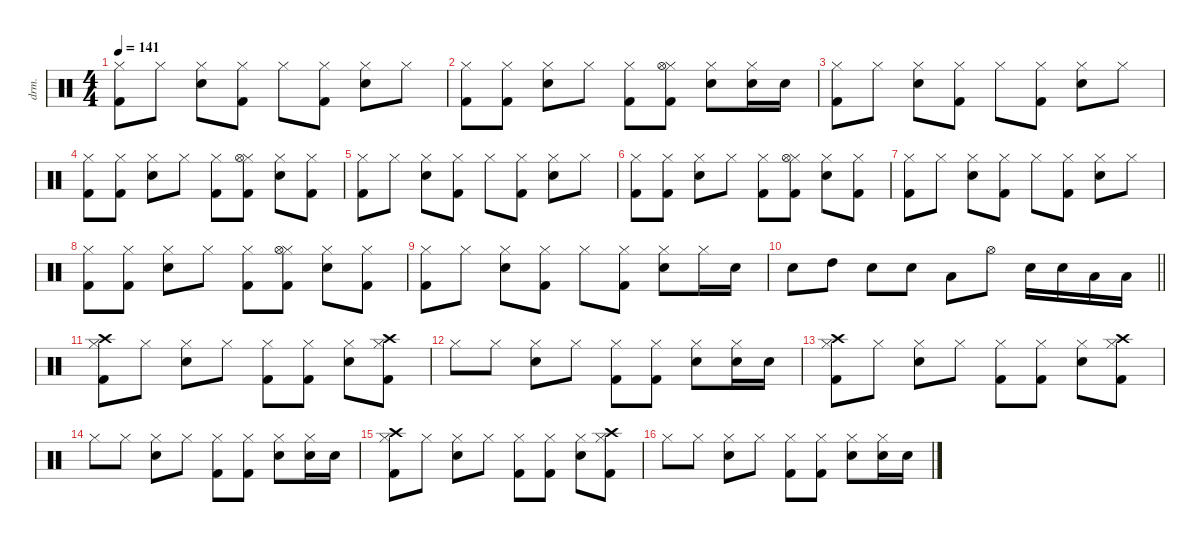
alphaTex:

\defaultSystemsLayout 4
\hideDynamics
\bracketExtendMode nobrackets
\otherSystemsTrackNameOrientation horizontal
\track ("Drum" "drm.") {instrument percussion}
\staff {score}
\articulation defaults
\ts (4 4)
\tempo 141
\clef neutral
\ks c
("Hi-Hat (closed)" "Kick (hit) 2").8{dy fff beam Down} "Hi-Hat (closed)".8{dy f beam Down} ("Hi-Hat (closed)" "Snare (hit) 2").8{dy fff beam Down} ("Hi-Hat (closed)" "Kick (hit) 2").8{beam Down} "Hi-Hat (closed)".8{beam Down} ("Hi-Hat (closed)" "Kick (hit) 2").8{dy f beam Down} ("Hi-Hat (closed)" "Snare (hit) 2").8{dy fff beam Down} "Hi-Hat (closed)".8{dy f beam Down} |
("Hi-Hat (closed)" "Kick (hit) 2").8{dy fff beam Down} ("Hi-Hat (closed)" "Kick (hit) 2").8{beam Down} ("Hi-Hat (closed)" "Snare (hit) 2").8{beam Down} "Hi-Hat (closed)".8{dy f beam Down} ("Hi-Hat (closed)" "Kick (hit) 2").8{dy fff beam Down} ("Hi-Hat (closed)" "Kick (hit) 2" "Hi-Hat (open)").8{beam Down} ("Hi-Hat (closed)" "Snare (hit) 2").8{beam Down} ("Hi-Hat (closed)" "Snare (hit) 2").16{beam Down} "Snare (hit) 2".16{dy f beam Down} |
("Hi-Hat (closed)" "Kick (hit) 2").8{dy fff beam Down} "Hi-Hat (closed)".8{dy f beam Down} ("Hi-Hat (closed)" "Snare (hit) 2").8{dy fff beam Down} ("Hi-Hat (closed)" "Kick (hit) 2").8{beam Down} "Hi-Hat (closed)".8{beam Down} ("Hi-Hat (closed)" "Kick (hit) 2").8{dy f beam Down} ("Hi-Hat (closed)" "Snare (hit) 2").8{dy fff beam Down} "Hi-Hat (closed)".8{dy f beam Down} |
("Hi-Hat (closed)" "Kick (hit) 2").8{dy fff beam Down} ("Hi-Hat (closed)" "Kick (hit) 2").8{beam Down} ("Hi-Hat (closed)" "Snare (hit) 2").8{beam Down} "Hi-Hat (closed)".8{dy f beam Down} ("Hi-Hat (closed)" "Kick (hit) 2").8{dy fff beam Down} ("Hi-Hat (closed)" "Kick (hit) 2" "Hi-Hat (open)").8{beam Down} ("Hi-Hat (closed)" "Snare (hit) 2").8{beam Down} ("Hi-Hat (closed)" "Kick (hit) 2").8{beam Down} |
("Hi-Hat (closed)" "Kick (hit) 2").8{beam Down} "Hi-Hat (closed)".8{dy f beam Down} ("Hi-Hat (closed)" "Snare (hit) 2").8{dy fff beam Down} ("Hi-Hat (closed)" "Kick (hit) 2").8{beam Down} "Hi-Hat (closed)".8{beam Down} ("Hi-Hat (closed)" "Kick (hit) 2").8{dy f beam Down} ("Hi-Hat (closed)" "Snare (hit) 2").8{dy fff beam Down} "Hi-Hat (closed)".8{dy f beam Down} |
("Hi-Hat (closed)" "Kick (hit) 2").8{dy fff beam Down} ("Hi-Hat (closed)" "Kick (hit) 2").8{beam Down} ("Hi-Hat (closed)" "Snare (hit) 2").8{beam Down} "Hi-Hat (closed)".8{dy f beam Down} ("Hi-Hat (closed)" "Kick (hit) 2").8{dy fff beam Down} ("Hi-Hat (closed)" "Kick (hit) 2" "Hi-Hat (open)").8{beam Down} ("Hi-Hat (closed)" "Snare (hit) 2").8{beam Down} ("Hi-Hat (closed)" "Kick (hit) 2").8{beam Down} |
("Hi-Hat (closed)" "Kick (hit) 2").8{beam Down} "Hi-Hat (closed)".8{dy f beam Down} ("Hi-Hat (closed)" "Snare (hit) 2").8{dy fff beam Down} ("Hi-Hat (closed)" "Kick (hit) 2").8{beam Down} "Hi-Hat (closed)".8{beam Down} ("Hi-Hat (closed)" "Kick (hit) 2").8{dy f beam Down} ("Hi-Hat (closed)" "Snare (hit) 2").8{dy fff beam Down} "Hi-Hat (closed)".8{dy f beam Down} |
("Hi-Hat (closed)" "Kick (hit) 2").8{dy fff beam Down} ("Hi-Hat (closed)" "Kick (hit) 2").8{beam Down} ("Hi-Hat (closed)" "Snare (hit) 2").8{beam Down} "Hi-Hat (closed)".8{dy f beam Down} ("Hi-Hat (closed)" "Kick (hit) 2").8{dy fff beam Down} ("Hi-Hat (closed)" "Kick (hit) 2" "Hi-Hat (open)").8{beam Down} ("Hi-Hat (closed)" "Snare (hit) 2").8{beam Down} ("Hi-Hat (closed)" "Kick (hit) 2").8{beam Down} |
("Hi-Hat (closed)" "Kick (hit) 2").8{beam Down} "Hi-Hat (closed)".8{dy f beam Down} ("Hi-Hat (closed)" "Snare (hit) 2").8{dy fff beam Down} ("Hi-Hat (closed)" "Kick (hit) 2").8{beam Down} "Hi-Hat (closed)".8{beam Down} ("Hi-Hat (closed)" "Kick (hit) 2").8{beam Down} ("Hi-Hat (closed)" "Snare (hit) 2").8{beam Down} "Hi-Hat (closed)".16{dy f beam Down} "Snare (hit) 2".16{dy mf beam Down} |
\barLineRight lightlight "Snare (hit) 2".8{dy fff beam Down} "High Tom (hit)".8{beam Down} "Snare (hit) 2".8{dy mf beam Down} "Snare (hit) 2".8{dy fff beam Down} "Low Tom (hit)".8{beam Down} "Hi-Hat (open)".8{beam Down} "Snare (hit) 2".16{beam Down} "Snare (hit) 2".16{beam Down} "Low Tom (hit)".16{beam Down} "Low Floor Tom (hit)".16{beam Down}
|
("Hi-Hat (closed)" "Kick (hit) 2" "Crash high (hit)").8{beam Down} "Hi-Hat (closed)".8{dy f beam Down} ("Hi-Hat (closed)" "Snare (hit) 2").8{dy fff beam Down} "Hi-Hat (closed)".8{dy f beam Down} ("Hi-Hat (closed)" "Kick (hit) 2").8{dy fff beam Down} ("Hi-Hat (closed)" "Kick (hit) 2").8{beam Down} ("Hi-Hat (closed)" "Snare (hit) 2").8{beam Down} ("Hi-Hat (closed)" "Kick (hit) 2" "Crash high (hit)").8{beam Down} |
"Hi-Hat (closed)".8{beam Down} "Hi-Hat (closed)".8{dy f beam Down} ("Hi-Hat (closed)" "Snare (hit) 2").8{dy fff beam Down} "Hi-Hat (closed)".8{dy f beam Down} ("Hi-Hat (closed)" "Kick (hit) 2").8{dy fff beam Down} ("Hi-Hat (closed)" "Kick (hit) 2").8{beam Down} ("Hi-Hat (closed)" "Snare (hit) 2").8{beam Down} ("Hi-Hat (closed)" "Snare (hit) 2").16{beam Down} "Snare (hit) 2".16{beam Down} |
("Kick (hit) 2" "Hi-Hat (closed)" "Crash high (hit)").8{beam Down} "Hi-Hat (closed)".8{dy f beam Down} ("Snare (hit) 2" "Hi-Hat (closed)").8{dy fff beam Down} "Hi-Hat (closed)".8{dy f beam Down} ("Kick (hit) 2" "Hi-Hat (closed)").8{dy fff beam Down} ("Kick (hit) 2" "Hi-Hat (closed)").8{beam Down} ("Snare (hit) 2" "Hi-Hat (closed)").8{beam Down} ("Kick (hit) 2" "Hi-Hat (closed)" "Crash high (hit)").8{beam Down} |
"Hi-Hat (closed)".8{beam Down} "Hi-Hat (closed)".8{dy f beam Down} ("Hi-Hat (closed)" "Snare (hit) 2").8{dy fff beam Down} "Hi-Hat (closed)".8{dy f beam Down} ("Hi-Hat (closed)" "Kick (hit) 2").8{dy fff beam Down} ("Hi-Hat (closed)" "Kick (hit) 2").8{beam Down} ("Hi-Hat (closed)" "Snare (hit) 2").8{beam Down} ("Hi-Hat (closed)" "Snare (hit) 2").16{beam Down} "Snare (hit) 2".16{beam Down} |
("Hi-Hat (closed)" "Kick (hit) 2" "Crash high (hit)").8{beam Down} "Hi-Hat (closed)".8{dy f beam Down} ("Hi-Hat (closed)" "Snare (hit) 2").8{dy fff beam Down} "Hi-Hat (closed)".8{dy f beam Down} ("Kick (hit) 2" "Hi-Hat (closed)").8{dy fff beam Down} ("Kick (hit) 2" "Hi-Hat (closed)").8{beam Down} ("Snare (hit) 2" "Hi-Hat (closed)").8{beam Down} ("Kick (hit) 2" "Hi-Hat (closed)" "Crash high (hit)").8{beam Down} |
"Hi-Hat (closed)".8{beam Down} "Hi-Hat (closed)".8{dy f beam Down} ("Hi-Hat (closed)" "Snare (hit) 2").8{dy fff beam Down} "Hi-Hat (closed)".8{dy f beam Down} ("Hi-Hat (closed)" "Kick (hit) 2").8{dy fff beam Down} ("Hi-Hat (closed)" "Kick (hit) 2").8{beam Down} ("Hi-Hat (closed)" "Snare (hit) 2").8{beam Down} ("Hi-Hat (closed)" "Snare (hit) 2").16{beam Down} "Snare (hit) 2".16{dy f beam Down}
